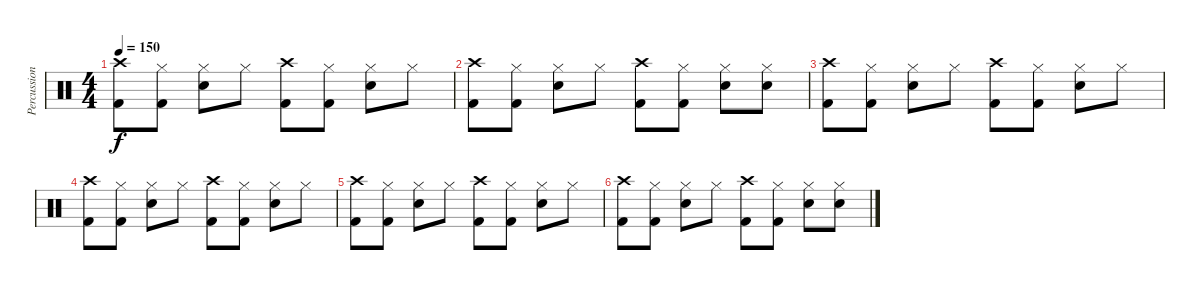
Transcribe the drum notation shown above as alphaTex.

\track ("Percussion" "Percussion") {instrument percussion}
\staff {score}
\articulation defaults
\ts (4 4)
\tempo 150
\clef neutral
\ks c
("Crash high (hit)" "Kick (hit) 2").8{dy f} ("Hi-Hat (closed)" "Kick (hit) 2").8 ("Hi-Hat (closed)" "Electric Snare (hit)").8 "Hi-Hat (closed)".8 ("Crash high (hit)" "Kick (hit) 2").8 ("Hi-Hat (closed)" "Kick (hit) 2").8 ("Hi-Hat (closed)" "Electric Snare (hit)").8 "Hi-Hat (closed)".8 |
("Crash high (hit)" "Kick (hit) 2").8 ("Hi-Hat (closed)" "Kick (hit) 2").8 ("Hi-Hat (closed)" "Electric Snare (hit)").8 "Hi-Hat (closed)".8 ("Crash high (hit)" "Kick (hit) 2").8 ("Hi-Hat (closed)" "Kick (hit) 2").8 ("Hi-Hat (closed)" "Electric Snare (hit)").8 ("Hi-Hat (closed)" "Electric Snare (hit)").8 |
("Crash high (hit)" "Kick (hit) 2").8 ("Hi-Hat (closed)" "Kick (hit) 2").8 ("Hi-Hat (closed)" "Electric Snare (hit)").8 "Hi-Hat (closed)".8 ("Crash high (hit)" "Kick (hit) 2").8 ("Hi-Hat (closed)" "Kick (hit) 2").8 ("Hi-Hat (closed)" "Electric Snare (hit)").8 "Hi-Hat (closed)".8 |
("Crash high (hit)" "Kick (hit) 2").8 ("Hi-Hat (closed)" "Kick (hit) 2").8 ("Hi-Hat (closed)" "Electric Snare (hit)").8 "Hi-Hat (closed)".8 ("Crash high (hit)" "Kick (hit) 2").8 ("Hi-Hat (closed)" "Kick (hit) 2").8 ("Hi-Hat (closed)" "Electric Snare (hit)").8 "Hi-Hat (closed)".8 |
("Crash high (hit)" "Kick (hit) 2").8 ("Hi-Hat (closed)" "Kick (hit) 2").8 ("Hi-Hat (closed)" "Electric Snare (hit)").8 "Hi-Hat (closed)".8 ("Crash high (hit)" "Kick (hit) 2").8 ("Hi-Hat (closed)" "Kick (hit) 2").8 ("Hi-Hat (closed)" "Electric Snare (hit)").8 "Hi-Hat (closed)".8 |
("Crash high (hit)" "Kick (hit) 2").8 ("Hi-Hat (closed)" "Kick (hit) 2").8 ("Hi-Hat (closed)" "Electric Snare (hit)").8 "Hi-Hat (closed)".8 ("Crash high (hit)" "Kick (hit) 2").8 ("Hi-Hat (closed)" "Kick (hit) 2").8 ("Hi-Hat (closed)" "Electric Snare (hit)").8 ("Hi-Hat (closed)" "Electric Snare (hit)").8
